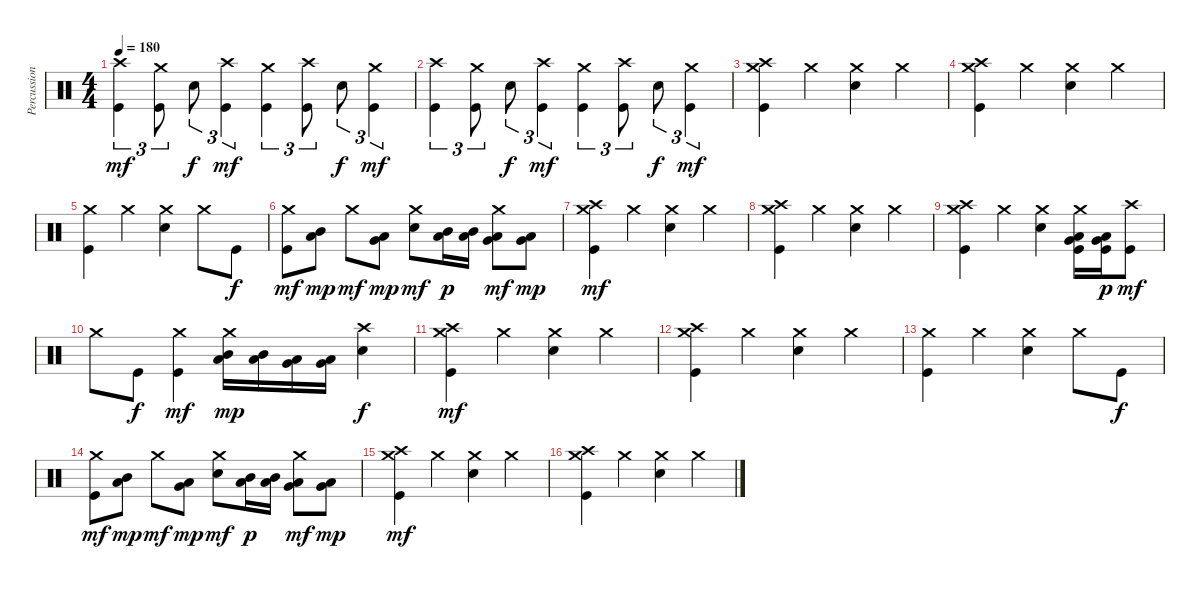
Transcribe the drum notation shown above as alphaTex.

\track ("Percussions" "Percussion") {instrument percussion}
\staff {score}
\articulation defaults
\ts (4 4)
\tempo 180
\clef neutral
\ks c
("Kick (hit)" "Crash high (hit)").4{tu (3 2) dy mf} ("Kick (hit)" "Crash medium (hit)").8{tu (3 2)} "Electric Snare (hit)".8{tu (3 2) dy f} ("Kick (hit)" "Crash high (hit)").4{tu (3 2) dy mf} ("Kick (hit)" "Crash medium (hit)").4{tu (3 2)} ("Kick (hit)" "Crash high (hit)").8{tu (3 2)} "Electric Snare (hit)".8{tu (3 2) dy f} ("Kick (hit)" "Crash medium (hit)").4{tu (3 2) dy mf} |
("Kick (hit)" "Crash high (hit)").4{tu (3 2)} ("Kick (hit)" "Crash medium (hit)").8{tu (3 2)} "Electric Snare (hit)".8{tu (3 2) dy f} ("Kick (hit)" "Crash high (hit)").4{tu (3 2) dy mf} ("Kick (hit)" "Crash medium (hit)").4{tu (3 2)} ("Kick (hit)" "Crash high (hit)").8{tu (3 2)} "Electric Snare (hit)".8{tu (3 2) dy f} ("Kick (hit)" "Crash medium (hit)").4{tu (3 2) dy mf} |
("Kick (hit)" "Crash medium (hit)" "Crash high (hit)").4 "Crash medium (hit)".4 ("Electric Snare (hit)" "Crash medium (hit)").4 "Crash medium (hit)".4 |
("Kick (hit)" "Crash medium (hit)" "Crash high (hit)").4 "Crash medium (hit)".4 ("Electric Snare (hit)" "Crash medium (hit)").4 "Crash medium (hit)".4 |
("Kick (hit)" "Crash medium (hit)").4 "Crash medium (hit)".4 ("Electric Snare (hit)" "Crash medium (hit)").4 "Crash medium (hit)".8 "Kick (hit)".8{dy f} |
("Kick (hit)" "Crash medium (hit)").8{dy mf} ("Low Tom (hit)" "Mid Tom (hit)").8{dy mp} "Crash medium (hit)".8{dy mf} ("Low Floor Tom (hit)" "Very Low Tom (hit)").8{dy mp} ("Electric Snare (hit)" "Crash medium (hit)").8{dy mf} ("Low Tom (hit)" "Mid Tom (hit)").16{dy p} ("Low Tom (hit)" "Mid Tom (hit)").16 ("Very Low Tom (hit)" "Low Tom (hit)" "Crash medium (hit)").8{dy mf} ("Low Floor Tom (hit)" "Very Low Tom (hit)").8{dy mp} |
("Kick (hit)" "Crash medium (hit)" "Crash high (hit)").4{dy mf} "Crash medium (hit)".4 ("Electric Snare (hit)" "Crash medium (hit)").4 "Crash medium (hit)".4 |
("Kick (hit)" "Crash medium (hit)" "Crash high (hit)").4 "Crash medium (hit)".4 ("Electric Snare (hit)" "Crash medium (hit)").4 "Crash medium (hit)".4 |
("Kick (hit)" "Crash medium (hit)" "Crash high (hit)").4 "Crash medium (hit)".4 ("Electric Snare (hit)" "Crash medium (hit)").4 ("Kick (hit)" "Very Low Tom (hit)" "Low Tom (hit)" "Crash medium (hit)").16 ("Kick (hit)" "Very Low Tom (hit)" "Low Tom (hit)").16{dy p} ("Kick (hit)" "Crash high (hit)").8{dy mf} |
"Crash medium (hit)".8 "Kick (hit)".8{dy f} ("Kick (hit)" "Crash medium (hit)").4{dy mf} ("Low Tom (hit)" "Mid Tom (hit)" "Crash medium (hit)").16{dy mp} ("Low Tom (hit)" "Mid Tom (hit)").16 ("Very Low Tom (hit)" "Low Tom (hit)").16 ("Very Low Tom (hit)" "Low Tom (hit)").16 ("Electric Snare (hit)" "Crash high (hit)").4{dy f} |
("Kick (hit)" "Crash medium (hit)" "Crash high (hit)").4{dy mf} "Crash medium (hit)".4 ("Electric Snare (hit)" "Crash medium (hit)").4 "Crash medium (hit)".4 |
("Kick (hit)" "Crash medium (hit)" "Crash high (hit)").4 "Crash medium (hit)".4 ("Electric Snare (hit)" "Crash medium (hit)").4 "Crash medium (hit)".4 |
("Kick (hit)" "Crash medium (hit)").4 "Crash medium (hit)".4 ("Electric Snare (hit)" "Crash medium (hit)").4 "Crash medium (hit)".8 "Kick (hit)".8{dy f} |
("Kick (hit)" "Crash medium (hit)").8{dy mf} ("Low Tom (hit)" "Mid Tom (hit)").8{dy mp} "Crash medium (hit)".8{dy mf} ("Low Floor Tom (hit)" "Very Low Tom (hit)").8{dy mp} ("Electric Snare (hit)" "Crash medium (hit)").8{dy mf} ("Low Tom (hit)" "Mid Tom (hit)").16{dy p} ("Low Tom (hit)" "Mid Tom (hit)").16 ("Very Low Tom (hit)" "Low Tom (hit)" "Crash medium (hit)").8{dy mf} ("Low Floor Tom (hit)" "Very Low Tom (hit)").8{dy mp} |
("Kick (hit)" "Crash medium (hit)" "Crash high (hit)").4{dy mf} "Crash medium (hit)".4 ("Electric Snare (hit)" "Crash medium (hit)").4 "Crash medium (hit)".4 |
("Kick (hit)" "Crash medium (hit)" "Crash high (hit)").4 "Crash medium (hit)".4 ("Electric Snare (hit)" "Crash medium (hit)").4 "Crash medium (hit)".4
